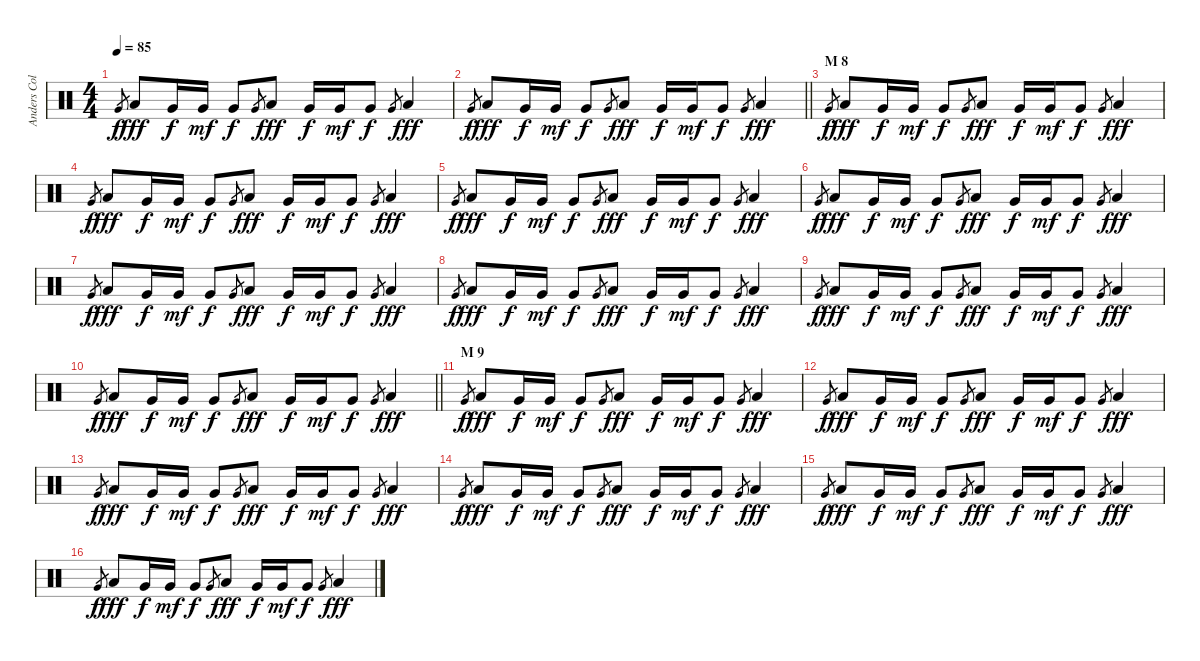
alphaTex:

\track ("Anders Colsefni" "Anders Col") {instrument percussion}
\staff {score}
\articulation defaults
\ts (4 4)
\tempo 85
\clef neutral
\ks c "Very Low Tom (hit)".8{gr dy f} "Low Tom (hit)".8{dy fff} "Very Low Tom (hit)".16{dy f} "Very Low Tom (hit)".16{dy mf} "Very Low Tom (hit)".8{dy f} "Very Low Tom (hit)".8{gr} "Low Tom (hit)".8{dy fff} "Very Low Tom (hit)".16{dy f} "Very Low Tom (hit)".16{dy mf} "Very Low Tom (hit)".8{dy f} "Very Low Tom (hit)".8{gr} "Low Tom (hit)".4{dy fff}
|
\barLineRight lightlight "Very Low Tom (hit)".8{gr dy f} "Low Tom (hit)".8{dy fff} "Very Low Tom (hit)".16{dy f} "Very Low Tom (hit)".16{dy mf} "Very Low Tom (hit)".8{dy f} "Very Low Tom (hit)".8{gr} "Low Tom (hit)".8{dy fff} "Very Low Tom (hit)".16{dy f} "Very Low Tom (hit)".16{dy mf} "Very Low Tom (hit)".8{dy f} "Very Low Tom (hit)".8{gr} "Low Tom (hit)".4{dy fff}
|
\section ("" "M 8")
"Very Low Tom (hit)".8{gr dy f} "Low Tom (hit)".8{dy fff} "Very Low Tom (hit)".16{dy f} "Very Low Tom (hit)".16{dy mf} "Very Low Tom (hit)".8{dy f} "Very Low Tom (hit)".8{gr} "Low Tom (hit)".8{dy fff} "Very Low Tom (hit)".16{dy f} "Very Low Tom (hit)".16{dy mf} "Very Low Tom (hit)".8{dy f} "Very Low Tom (hit)".8{gr} "Low Tom (hit)".4{dy fff} |
"Very Low Tom (hit)".8{gr dy f} "Low Tom (hit)".8{dy fff} "Very Low Tom (hit)".16{dy f} "Very Low Tom (hit)".16{dy mf} "Very Low Tom (hit)".8{dy f} "Very Low Tom (hit)".8{gr} "Low Tom (hit)".8{dy fff} "Very Low Tom (hit)".16{dy f} "Very Low Tom (hit)".16{dy mf} "Very Low Tom (hit)".8{dy f} "Very Low Tom (hit)".8{gr} "Low Tom (hit)".4{dy fff} |
"Very Low Tom (hit)".8{gr dy f} "Low Tom (hit)".8{dy fff} "Very Low Tom (hit)".16{dy f} "Very Low Tom (hit)".16{dy mf} "Very Low Tom (hit)".8{dy f} "Very Low Tom (hit)".8{gr} "Low Tom (hit)".8{dy fff} "Very Low Tom (hit)".16{dy f} "Very Low Tom (hit)".16{dy mf} "Very Low Tom (hit)".8{dy f} "Very Low Tom (hit)".8{gr} "Low Tom (hit)".4{dy fff} |
"Very Low Tom (hit)".8{gr dy f} "Low Tom (hit)".8{dy fff} "Very Low Tom (hit)".16{dy f} "Very Low Tom (hit)".16{dy mf} "Very Low Tom (hit)".8{dy f} "Very Low Tom (hit)".8{gr} "Low Tom (hit)".8{dy fff} "Very Low Tom (hit)".16{dy f} "Very Low Tom (hit)".16{dy mf} "Very Low Tom (hit)".8{dy f} "Very Low Tom (hit)".8{gr} "Low Tom (hit)".4{dy fff} |
"Very Low Tom (hit)".8{gr dy f} "Low Tom (hit)".8{dy fff} "Very Low Tom (hit)".16{dy f} "Very Low Tom (hit)".16{dy mf} "Very Low Tom (hit)".8{dy f} "Very Low Tom (hit)".8{gr} "Low Tom (hit)".8{dy fff} "Very Low Tom (hit)".16{dy f} "Very Low Tom (hit)".16{dy mf} "Very Low Tom (hit)".8{dy f} "Very Low Tom (hit)".8{gr} "Low Tom (hit)".4{dy fff} |
"Very Low Tom (hit)".8{gr dy f} "Low Tom (hit)".8{dy fff} "Very Low Tom (hit)".16{dy f} "Very Low Tom (hit)".16{dy mf} "Very Low Tom (hit)".8{dy f} "Very Low Tom (hit)".8{gr} "Low Tom (hit)".8{dy fff} "Very Low Tom (hit)".16{dy f} "Very Low Tom (hit)".16{dy mf} "Very Low Tom (hit)".8{dy f} "Very Low Tom (hit)".8{gr} "Low Tom (hit)".4{dy fff} |
"Very Low Tom (hit)".8{gr dy f} "Low Tom (hit)".8{dy fff} "Very Low Tom (hit)".16{dy f} "Very Low Tom (hit)".16{dy mf} "Very Low Tom (hit)".8{dy f} "Very Low Tom (hit)".8{gr} "Low Tom (hit)".8{dy fff} "Very Low Tom (hit)".16{dy f} "Very Low Tom (hit)".16{dy mf} "Very Low Tom (hit)".8{dy f} "Very Low Tom (hit)".8{gr} "Low Tom (hit)".4{dy fff} |
\barLineRight lightlight "Very Low Tom (hit)".8{gr dy f} "Low Tom (hit)".8{dy fff} "Very Low Tom (hit)".16{dy f} "Very Low Tom (hit)".16{dy mf} "Very Low Tom (hit)".8{dy f} "Very Low Tom (hit)".8{gr} "Low Tom (hit)".8{dy fff} "Very Low Tom (hit)".16{dy f} "Very Low Tom (hit)".16{dy mf} "Very Low Tom (hit)".8{dy f} "Very Low Tom (hit)".8{gr} "Low Tom (hit)".4{dy fff}
|
\section ("" "M 9")
"Very Low Tom (hit)".8{gr dy f} "Low Tom (hit)".8{dy fff} "Very Low Tom (hit)".16{dy f} "Very Low Tom (hit)".16{dy mf} "Very Low Tom (hit)".8{dy f} "Very Low Tom (hit)".8{gr} "Low Tom (hit)".8{dy fff} "Very Low Tom (hit)".16{dy f} "Very Low Tom (hit)".16{dy mf} "Very Low Tom (hit)".8{dy f} "Very Low Tom (hit)".8{gr} "Low Tom (hit)".4{dy fff} |
"Very Low Tom (hit)".8{gr dy f} "Low Tom (hit)".8{dy fff} "Very Low Tom (hit)".16{dy f} "Very Low Tom (hit)".16{dy mf} "Very Low Tom (hit)".8{dy f} "Very Low Tom (hit)".8{gr} "Low Tom (hit)".8{dy fff} "Very Low Tom (hit)".16{dy f} "Very Low Tom (hit)".16{dy mf} "Very Low Tom (hit)".8{dy f} "Very Low Tom (hit)".8{gr} "Low Tom (hit)".4{dy fff} |
"Very Low Tom (hit)".8{gr dy f} "Low Tom (hit)".8{dy fff} "Very Low Tom (hit)".16{dy f} "Very Low Tom (hit)".16{dy mf} "Very Low Tom (hit)".8{dy f} "Very Low Tom (hit)".8{gr} "Low Tom (hit)".8{dy fff} "Very Low Tom (hit)".16{dy f} "Very Low Tom (hit)".16{dy mf} "Very Low Tom (hit)".8{dy f} "Very Low Tom (hit)".8{gr} "Low Tom (hit)".4{dy fff} |
"Very Low Tom (hit)".8{gr dy f} "Low Tom (hit)".8{dy fff} "Very Low Tom (hit)".16{dy f} "Very Low Tom (hit)".16{dy mf} "Very Low Tom (hit)".8{dy f} "Very Low Tom (hit)".8{gr} "Low Tom (hit)".8{dy fff} "Very Low Tom (hit)".16{dy f} "Very Low Tom (hit)".16{dy mf} "Very Low Tom (hit)".8{dy f} "Very Low Tom (hit)".8{gr} "Low Tom (hit)".4{dy fff} |
"Very Low Tom (hit)".8{gr dy f} "Low Tom (hit)".8{dy fff} "Very Low Tom (hit)".16{dy f} "Very Low Tom (hit)".16{dy mf} "Very Low Tom (hit)".8{dy f} "Very Low Tom (hit)".8{gr} "Low Tom (hit)".8{dy fff} "Very Low Tom (hit)".16{dy f} "Very Low Tom (hit)".16{dy mf} "Very Low Tom (hit)".8{dy f} "Very Low Tom (hit)".8{gr} "Low Tom (hit)".4{dy fff} |
"Very Low Tom (hit)".8{gr dy f} "Low Tom (hit)".8{dy fff} "Very Low Tom (hit)".16{dy f} "Very Low Tom (hit)".16{dy mf} "Very Low Tom (hit)".8{dy f} "Very Low Tom (hit)".8{gr} "Low Tom (hit)".8{dy fff} "Very Low Tom (hit)".16{dy f} "Very Low Tom (hit)".16{dy mf} "Very Low Tom (hit)".8{dy f} "Very Low Tom (hit)".8{gr} "Low Tom (hit)".4{dy fff}
